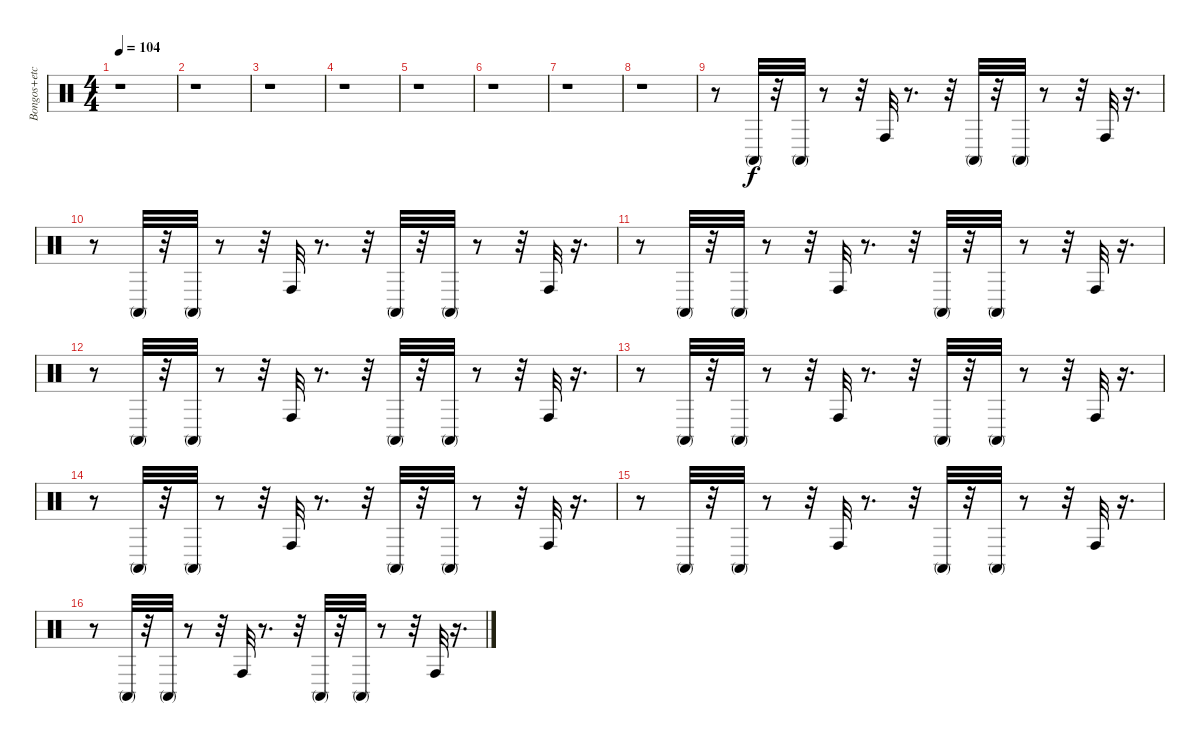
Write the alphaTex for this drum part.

\track ("Bongos+etc" "Bongos+etc") {instrument percussion}
\staff {score}
\articulation defaults
\ts (4 4)
\tempo 104
\clef neutral
\ks c
r.1{dy f} |
r.1 |
r.1 |
r.1 |
r.1 |
r.1 |
r.1 |
r.1 |
r.8 "Conga high (mute)".32 r.32 "Conga high (mute)".32 r.8 r.32 "Conga high (hit)".32 r.8{d} r.32 "Conga high (mute)".32 r.32 "Conga high (mute)".32 r.8 r.32 "Conga high (hit)".32 r.16{d} |
r.8 "Conga high (mute)".32 r.32 "Conga high (mute)".32 r.8 r.32 "Conga high (hit)".32 r.8{d} r.32 "Conga high (mute)".32 r.32 "Conga high (mute)".32 r.8 r.32 "Conga high (hit)".32 r.16{d} |
r.8 "Conga high (mute)".32 r.32 "Conga high (mute)".32 r.8 r.32 "Conga high (hit)".32 r.8{d} r.32 "Conga high (mute)".32 r.32 "Conga high (mute)".32 r.8 r.32 "Conga high (hit)".32 r.16{d} |
r.8 "Conga high (mute)".32 r.32 "Conga high (mute)".32 r.8 r.32 "Conga high (hit)".32 r.8{d} r.32 "Conga high (mute)".32 r.32 "Conga high (mute)".32 r.8 r.32 "Conga high (hit)".32 r.16{d} |
r.8 "Conga high (mute)".32 r.32 "Conga high (mute)".32 r.8 r.32 "Conga high (hit)".32 r.8{d} r.32 "Conga high (mute)".32 r.32 "Conga high (mute)".32 r.8 r.32 "Conga high (hit)".32 r.16{d} |
r.8 "Conga high (mute)".32 r.32 "Conga high (mute)".32 r.8 r.32 "Conga high (hit)".32 r.8{d} r.32 "Conga high (mute)".32 r.32 "Conga high (mute)".32 r.8 r.32 "Conga high (hit)".32 r.16{d} |
r.8 "Conga high (mute)".32 r.32 "Conga high (mute)".32 r.8 r.32 "Conga high (hit)".32 r.8{d} r.32 "Conga high (mute)".32 r.32 "Conga high (mute)".32 r.8 r.32 "Conga high (hit)".32 r.16{d} |
r.8 "Conga high (mute)".32 r.32 "Conga high (mute)".32 r.8 r.32 "Conga high (hit)".32 r.8{d} r.32 "Conga high (mute)".32 r.32 "Conga high (mute)".32 r.8 r.32 "Conga high (hit)".32 r.16{d}
